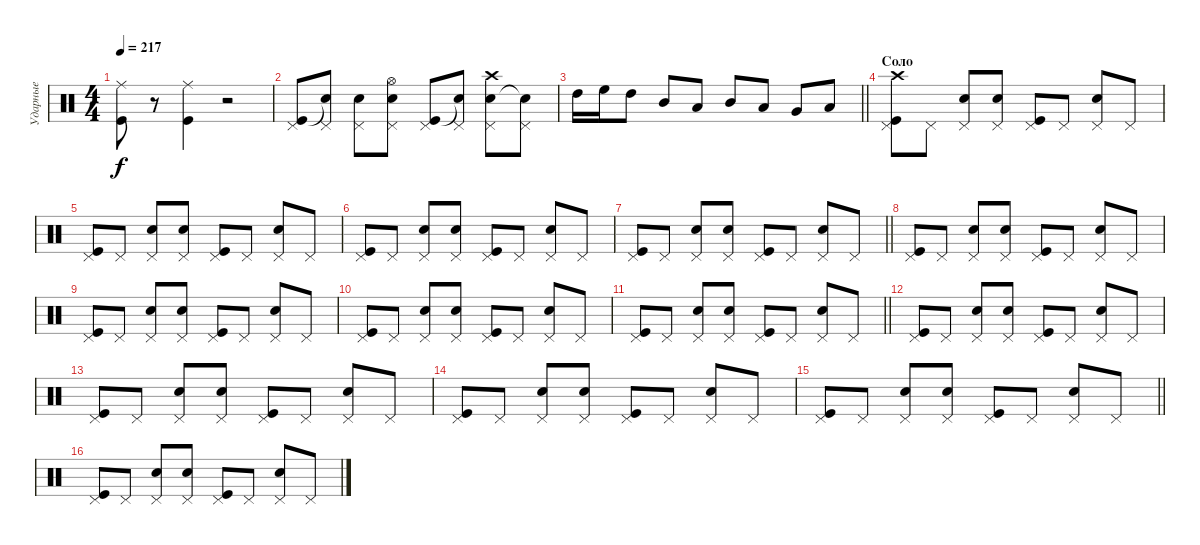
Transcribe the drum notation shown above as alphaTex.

\track ("Ударные" "Ударные") {instrument percussion}
\staff {score}
\articulation defaults
\ts (4 4)
\tempo 217
\clef neutral
\ks c
("Kick (hit)" "Ride (middle)").8{dy f} r.8 ("Kick (hit)" "Ride (middle)").4 r.2 |
("Pedal Hi-Hat (hit)" "Kick (hit)").8 ("Pedal Hi-Hat (hit)" "Snare (hit)"{t}).8 ("Pedal Hi-Hat (hit)" "Snare (hit) 2").8 ("Pedal Hi-Hat (hit)" "Snare (hit) 2" "Hi-Hat (open)").8 ("Pedal Hi-Hat (hit)" "Kick (hit)").8 ("Pedal Hi-Hat (hit)" "Snare (hit)"{t}).8 ("Pedal Hi-Hat (hit)" "Snare (hit) 2" "Crash high (hit)").8 ("Pedal Hi-Hat (hit)" "Snare (hit)"{t}).8 |
\barLineRight lightlight "High Tom (hit)".16 "High Floor Tom (hit)".16 "High Tom (hit)".8 "Mid Tom (hit)".8 "Low Tom (hit)".8 "Mid Tom (hit)".8 "Low Tom (hit)".8 "Very Low Tom (hit)".8 "Low Floor Tom (hit)".8
|
\section ("" "Соло")
("Pedal Hi-Hat (hit)" "Kick (hit)" "Crash high (hit)").8 "Pedal Hi-Hat (hit)".8 ("Pedal Hi-Hat (hit)" "Snare (hit) 2").8 ("Pedal Hi-Hat (hit)" "Snare (hit) 2").8 ("Pedal Hi-Hat (hit)" "Kick (hit)").8 "Pedal Hi-Hat (hit)".8 ("Pedal Hi-Hat (hit)" "Snare (hit) 2").8 "Pedal Hi-Hat (hit)".8 |
("Pedal Hi-Hat (hit)" "Kick (hit)").8 "Pedal Hi-Hat (hit)".8 ("Pedal Hi-Hat (hit)" "Snare (hit) 2").8 ("Pedal Hi-Hat (hit)" "Snare (hit) 2").8 ("Pedal Hi-Hat (hit)" "Kick (hit)").8 "Pedal Hi-Hat (hit)".8 ("Pedal Hi-Hat (hit)" "Snare (hit) 2").8 "Pedal Hi-Hat (hit)".8 |
("Pedal Hi-Hat (hit)" "Kick (hit)").8 "Pedal Hi-Hat (hit)".8 ("Pedal Hi-Hat (hit)" "Snare (hit) 2").8 ("Pedal Hi-Hat (hit)" "Snare (hit) 2").8 ("Pedal Hi-Hat (hit)" "Kick (hit)").8 "Pedal Hi-Hat (hit)".8 ("Pedal Hi-Hat (hit)" "Snare (hit) 2").8 "Pedal Hi-Hat (hit)".8 |
\barLineRight lightlight
("Pedal Hi-Hat (hit)" "Kick (hit)").8 "Pedal Hi-Hat (hit)".8 ("Pedal Hi-Hat (hit)" "Snare (hit) 2").8 ("Pedal Hi-Hat (hit)" "Snare (hit) 2").8 ("Pedal Hi-Hat (hit)" "Kick (hit)").8 "Pedal Hi-Hat (hit)".8 ("Pedal Hi-Hat (hit)" "Snare (hit) 2").8 "Pedal Hi-Hat (hit)".8 |
("Pedal Hi-Hat (hit)" "Kick (hit)").8 "Pedal Hi-Hat (hit)".8 ("Pedal Hi-Hat (hit)" "Snare (hit) 2").8 ("Pedal Hi-Hat (hit)" "Snare (hit) 2").8 ("Pedal Hi-Hat (hit)" "Kick (hit)").8 "Pedal Hi-Hat (hit)".8 ("Pedal Hi-Hat (hit)" "Snare (hit) 2").8 "Pedal Hi-Hat (hit)".8 |
("Pedal Hi-Hat (hit)" "Kick (hit)").8 "Pedal Hi-Hat (hit)".8 ("Pedal Hi-Hat (hit)" "Snare (hit) 2").8 ("Pedal Hi-Hat (hit)" "Snare (hit) 2").8 ("Pedal Hi-Hat (hit)" "Kick (hit)").8 "Pedal Hi-Hat (hit)".8 ("Pedal Hi-Hat (hit)" "Snare (hit) 2").8 "Pedal Hi-Hat (hit)".8 |
("Pedal Hi-Hat (hit)" "Kick (hit)").8 "Pedal Hi-Hat (hit)".8 ("Pedal Hi-Hat (hit)" "Snare (hit) 2").8 ("Pedal Hi-Hat (hit)" "Snare (hit) 2").8 ("Pedal Hi-Hat (hit)" "Kick (hit)").8 "Pedal Hi-Hat (hit)".8 ("Pedal Hi-Hat (hit)" "Snare (hit) 2").8 "Pedal Hi-Hat (hit)".8 |
\barLineRight lightlight
("Pedal Hi-Hat (hit)" "Kick (hit)").8 "Pedal Hi-Hat (hit)".8 ("Pedal Hi-Hat (hit)" "Snare (hit) 2").8 ("Pedal Hi-Hat (hit)" "Snare (hit) 2").8 ("Pedal Hi-Hat (hit)" "Kick (hit)").8 "Pedal Hi-Hat (hit)".8 ("Pedal Hi-Hat (hit)" "Snare (hit) 2").8 "Pedal Hi-Hat (hit)".8 |
("Pedal Hi-Hat (hit)" "Kick (hit)").8 "Pedal Hi-Hat (hit)".8 ("Pedal Hi-Hat (hit)" "Snare (hit) 2").8 ("Pedal Hi-Hat (hit)" "Snare (hit) 2").8 ("Pedal Hi-Hat (hit)" "Kick (hit)").8 "Pedal Hi-Hat (hit)".8 ("Pedal Hi-Hat (hit)" "Snare (hit) 2").8 "Pedal Hi-Hat (hit)".8 |
("Pedal Hi-Hat (hit)" "Kick (hit)").8 "Pedal Hi-Hat (hit)".8 ("Pedal Hi-Hat (hit)" "Snare (hit) 2").8 ("Pedal Hi-Hat (hit)" "Snare (hit) 2").8 ("Pedal Hi-Hat (hit)" "Kick (hit)").8 "Pedal Hi-Hat (hit)".8 ("Pedal Hi-Hat (hit)" "Snare (hit) 2").8 "Pedal Hi-Hat (hit)".8 |
("Pedal Hi-Hat (hit)" "Kick (hit)").8 "Pedal Hi-Hat (hit)".8 ("Pedal Hi-Hat (hit)" "Snare (hit) 2").8 ("Pedal Hi-Hat (hit)" "Snare (hit) 2").8 ("Pedal Hi-Hat (hit)" "Kick (hit)").8 "Pedal Hi-Hat (hit)".8 ("Pedal Hi-Hat (hit)" "Snare (hit) 2").8 "Pedal Hi-Hat (hit)".8 |
\barLineRight lightlight
("Pedal Hi-Hat (hit)" "Kick (hit)").8 "Pedal Hi-Hat (hit)".8 ("Pedal Hi-Hat (hit)" "Snare (hit) 2").8 ("Pedal Hi-Hat (hit)" "Snare (hit) 2").8 ("Pedal Hi-Hat (hit)" "Kick (hit)").8 "Pedal Hi-Hat (hit)".8 ("Pedal Hi-Hat (hit)" "Snare (hit) 2").8 "Pedal Hi-Hat (hit)".8 |
("Pedal Hi-Hat (hit)" "Kick (hit)").8 "Pedal Hi-Hat (hit)".8 ("Pedal Hi-Hat (hit)" "Snare (hit) 2").8 ("Pedal Hi-Hat (hit)" "Snare (hit) 2").8 ("Pedal Hi-Hat (hit)" "Kick (hit)").8 "Pedal Hi-Hat (hit)".8 ("Pedal Hi-Hat (hit)" "Snare (hit) 2").8 "Pedal Hi-Hat (hit)".8
